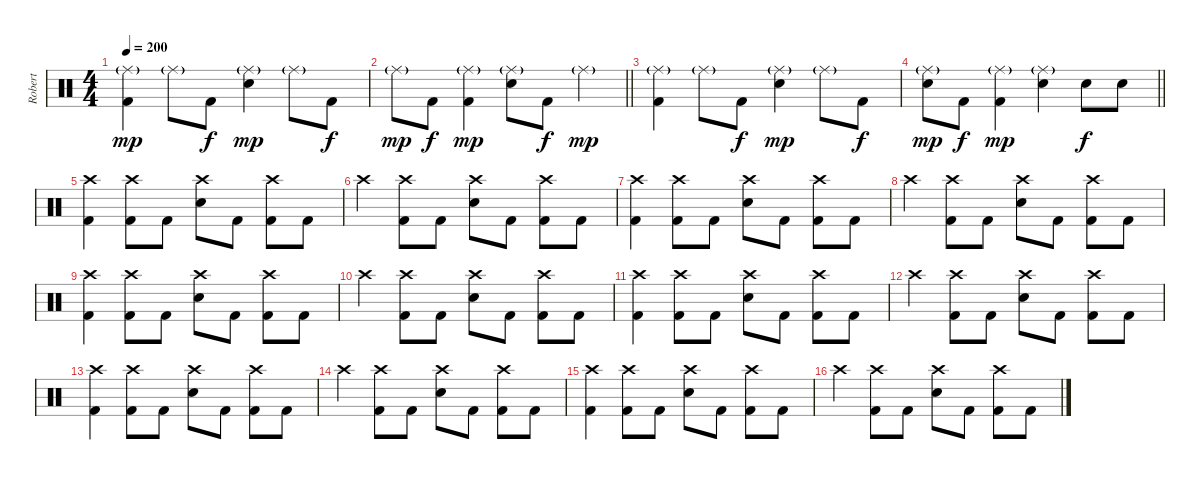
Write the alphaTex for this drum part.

\track ("Robert" "Robert") {instrument percussion}
\staff {score}
\articulation defaults
\ts (4 4)
\tempo 200
\clef neutral
\ks c
("Ride (middle)"{g} "Kick (hit) 2").4{dy mp} "Ride (middle)"{g}.8 "Kick (hit) 2".8{dy f} ("Ride (middle)"{g} "Electric Snare (hit)").4{dy mp} "Ride (middle)"{g}.8 "Kick (hit) 2".8{dy f} |
\barLineRight lightlight "Ride (middle)"{g}.8{dy mp} "Kick (hit) 2".8{dy f}
("Ride (middle)"{g} "Kick (hit) 2").4{dy mp} ("Ride (middle)"{g} "Electric Snare (hit)").8 "Kick (hit) 2".8{dy f} "Ride (middle)"{g}.4{dy mp} |
("Ride (middle)"{g} "Kick (hit) 2").4 "Ride (middle)"{g}.8 "Kick (hit) 2".8{dy f} ("Ride (middle)"{g} "Electric Snare (hit)").4{dy mp} "Ride (middle)"{g}.8 "Kick (hit) 2".8{dy f} |
\barLineRight lightlight
("Ride (middle)"{g} "Electric Snare (hit)").8{dy mp} "Kick (hit) 2".8{dy f} ("Ride (middle)"{g} "Kick (hit) 2").4{dy mp} ("Ride (middle)"{g} "Electric Snare (hit)").4 "Electric Snare (hit)".8{dy f} "Electric Snare (hit)".8 |
("Crash high (hit)" "Kick (hit) 2").4 ("Crash high (hit)" "Kick (hit) 2").8 "Kick (hit) 2".8 ("Crash high (hit)" "Electric Snare (hit)").8 "Kick (hit) 2".8 ("Crash high (hit)" "Kick (hit) 2").8 "Kick (hit) 2".8 |
"Crash high (hit)".4 ("Crash high (hit)" "Kick (hit) 2").8 "Kick (hit) 2".8 ("Crash high (hit)" "Electric Snare (hit)").8 "Kick (hit) 2".8 ("Crash high (hit)" "Kick (hit) 2").8 "Kick (hit) 2".8 |
("Crash high (hit)" "Kick (hit) 2").4 ("Crash high (hit)" "Kick (hit) 2").8 "Kick (hit) 2".8 ("Crash high (hit)" "Electric Snare (hit)").8 "Kick (hit) 2".8 ("Crash high (hit)" "Kick (hit) 2").8 "Kick (hit) 2".8 |
"Crash high (hit)".4 ("Crash high (hit)" "Kick (hit) 2").8 "Kick (hit) 2".8 ("Crash high (hit)" "Electric Snare (hit)").8 "Kick (hit) 2".8 ("Crash high (hit)" "Kick (hit) 2").8 "Kick (hit) 2".8 |
("Crash high (hit)" "Kick (hit) 2").4 ("Crash high (hit)" "Kick (hit) 2").8 "Kick (hit) 2".8 ("Crash high (hit)" "Electric Snare (hit)").8 "Kick (hit) 2".8 ("Crash high (hit)" "Kick (hit) 2").8 "Kick (hit) 2".8 |
"Crash high (hit)".4 ("Crash high (hit)" "Kick (hit) 2").8 "Kick (hit) 2".8 ("Crash high (hit)" "Electric Snare (hit)").8 "Kick (hit) 2".8 ("Crash high (hit)" "Kick (hit) 2").8 "Kick (hit) 2".8 |
("Crash high (hit)" "Kick (hit) 2").4 ("Crash high (hit)" "Kick (hit) 2").8 "Kick (hit) 2".8 ("Crash high (hit)" "Electric Snare (hit)").8 "Kick (hit) 2".8 ("Crash high (hit)" "Kick (hit) 2").8 "Kick (hit) 2".8 |
"Crash high (hit)".4 ("Crash high (hit)" "Kick (hit) 2").8 "Kick (hit) 2".8 ("Crash high (hit)" "Electric Snare (hit)").8 "Kick (hit) 2".8 ("Crash high (hit)" "Kick (hit) 2").8 "Kick (hit) 2".8 |
("Crash high (hit)" "Kick (hit) 2").4 ("Crash high (hit)" "Kick (hit) 2").8 "Kick (hit) 2".8 ("Crash high (hit)" "Electric Snare (hit)").8 "Kick (hit) 2".8 ("Crash high (hit)" "Kick (hit) 2").8 "Kick (hit) 2".8 |
"Crash high (hit)".4 ("Crash high (hit)" "Kick (hit) 2").8 "Kick (hit) 2".8 ("Crash high (hit)" "Electric Snare (hit)").8 "Kick (hit) 2".8 ("Crash high (hit)" "Kick (hit) 2").8 "Kick (hit) 2".8 |
("Crash high (hit)" "Kick (hit) 2").4 ("Crash high (hit)" "Kick (hit) 2").8 "Kick (hit) 2".8 ("Crash high (hit)" "Electric Snare (hit)").8 "Kick (hit) 2".8 ("Crash high (hit)" "Kick (hit) 2").8 "Kick (hit) 2".8 |
"Crash high (hit)".4 ("Crash high (hit)" "Kick (hit) 2").8 "Kick (hit) 2".8 ("Crash high (hit)" "Electric Snare (hit)").8 "Kick (hit) 2".8 ("Crash high (hit)" "Kick (hit) 2").8 "Kick (hit) 2".8
